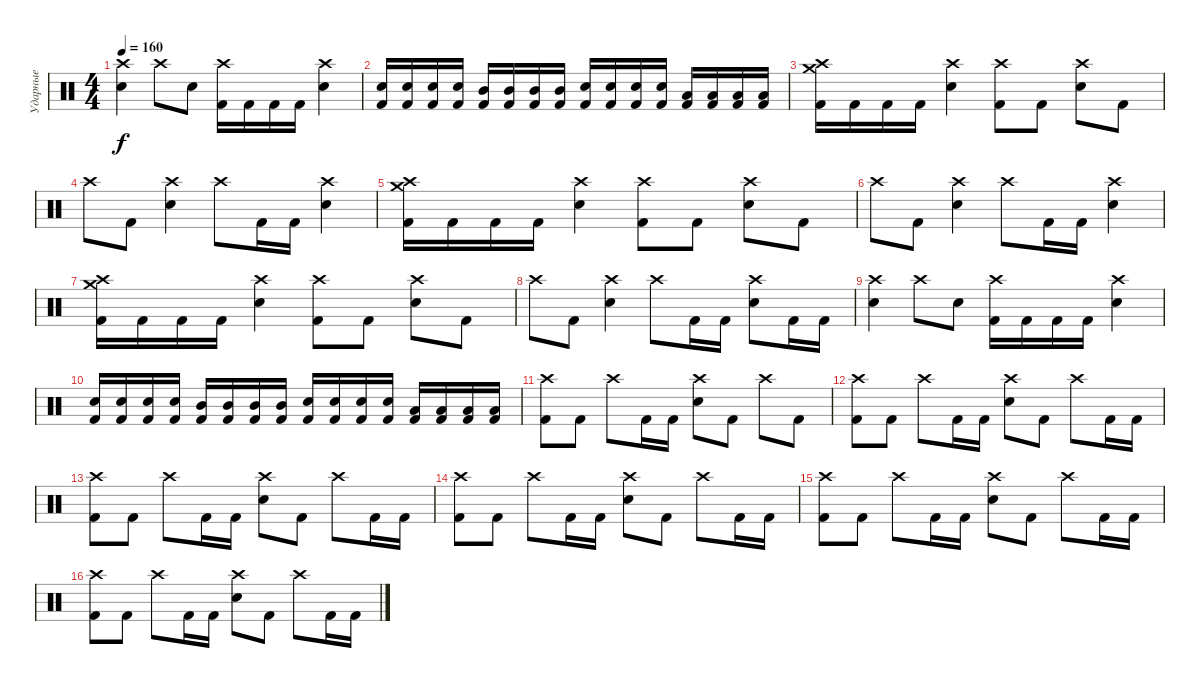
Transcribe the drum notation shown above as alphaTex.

\track ("Ударные" "Ударные") {instrument percussion}
\staff {score}
\articulation defaults
\ts (4 4)
\tempo 160
\clef neutral
\ks c
("Crash high (hit)" "Snare (hit) 2").4{dy f} "Crash high (hit)".8 "Snare (hit) 2".8 ("Crash high (hit)" "Kick (hit) 2").16 "Kick (hit) 2".16 "Kick (hit) 2".16 "Kick (hit) 2".16 ("Crash high (hit)" "Snare (hit) 2").4 |
("Snare (hit) 2" "Kick (hit) 2").16 ("Snare (hit) 2" "Kick (hit) 2").16 ("Snare (hit) 2" "Kick (hit) 2").16 ("Snare (hit) 2" "Kick (hit) 2").16 ("Mid Tom (hit)" "Kick (hit) 2").16 ("Mid Tom (hit)" "Kick (hit) 2").16 ("Mid Tom (hit)" "Kick (hit) 2").16 ("Mid Tom (hit)" "Kick (hit) 2").16 ("Snare (hit) 2" "Kick (hit) 2").16 ("Snare (hit) 2" "Kick (hit) 2").16 ("Snare (hit) 2" "Kick (hit) 2").16 ("Snare (hit) 2" "Kick (hit) 2").16 ("Low Tom (hit)" "Kick (hit) 2").16 ("Low Tom (hit)" "Kick (hit) 2").16 ("Low Tom (hit)" "Kick (hit) 2").16 ("Low Tom (hit)" "Kick (hit) 2").16 |
("Crash high (hit)" "Crash medium (hit)" "Kick (hit) 2").16 "Kick (hit) 2".16 "Kick (hit) 2".16 "Kick (hit) 2".16 ("Crash high (hit)" "Snare (hit) 2").4 ("Crash high (hit)" "Kick (hit) 2").8 "Kick (hit) 2".8 ("Crash high (hit)" "Snare (hit) 2").8 "Kick (hit) 2".8 |
"Crash high (hit)".8 "Kick (hit) 2".8 ("Crash high (hit)" "Snare (hit) 2").4 "Crash high (hit)".8 "Kick (hit) 2".16 "Kick (hit) 2".16 ("Crash high (hit)" "Snare (hit) 2").4 |
("Crash high (hit)" "Crash medium (hit)" "Kick (hit) 2").16 "Kick (hit) 2".16 "Kick (hit) 2".16 "Kick (hit) 2".16 ("Crash high (hit)" "Snare (hit) 2").4 ("Crash high (hit)" "Kick (hit) 2").8 "Kick (hit) 2".8 ("Crash high (hit)" "Snare (hit) 2").8 "Kick (hit) 2".8 |
"Crash high (hit)".8 "Kick (hit) 2".8 ("Crash high (hit)" "Snare (hit) 2").4 "Crash high (hit)".8 "Kick (hit) 2".16 "Kick (hit) 2".16 ("Crash high (hit)" "Snare (hit) 2").4 |
("Crash high (hit)" "Crash medium (hit)" "Kick (hit) 2").16 "Kick (hit) 2".16 "Kick (hit) 2".16 "Kick (hit) 2".16 ("Crash high (hit)" "Snare (hit) 2").4 ("Crash high (hit)" "Kick (hit) 2").8 "Kick (hit) 2".8 ("Crash high (hit)" "Snare (hit) 2").8 "Kick (hit) 2".8 |
"Crash high (hit)".8 "Kick (hit) 2".8 ("Crash high (hit)" "Snare (hit) 2").4 "Crash high (hit)".8 "Kick (hit) 2".16 "Kick (hit) 2".16 ("Crash high (hit)" "Snare (hit) 2").8 "Kick (hit) 2".16 "Kick (hit) 2".16 |
("Crash high (hit)" "Snare (hit) 2").4 "Crash high (hit)".8 "Snare (hit) 2".8 ("Crash high (hit)" "Kick (hit) 2").16 "Kick (hit) 2".16 "Kick (hit) 2".16 "Kick (hit) 2".16 ("Crash high (hit)" "Snare (hit) 2").4 |
("Snare (hit) 2" "Kick (hit) 2").16 ("Snare (hit) 2" "Kick (hit) 2").16 ("Snare (hit) 2" "Kick (hit) 2").16 ("Snare (hit) 2" "Kick (hit) 2").16 ("Mid Tom (hit)" "Kick (hit) 2").16 ("Mid Tom (hit)" "Kick (hit) 2").16 ("Mid Tom (hit)" "Kick (hit) 2").16 ("Mid Tom (hit)" "Kick (hit) 2").16 ("Snare (hit) 2" "Kick (hit) 2").16 ("Snare (hit) 2" "Kick (hit) 2").16 ("Snare (hit) 2" "Kick (hit) 2").16 ("Snare (hit) 2" "Kick (hit) 2").16 ("Low Tom (hit)" "Kick (hit) 2").16 ("Low Tom (hit)" "Kick (hit) 2").16 ("Low Tom (hit)" "Kick (hit) 2").16 ("Low Tom (hit)" "Kick (hit) 2").16 |
("Crash high (hit)" "Kick (hit) 2").8 "Kick (hit) 2".8 "Crash high (hit)".8 "Kick (hit) 2".16 "Kick (hit) 2".16 ("Crash high (hit)" "Snare (hit) 2").8 "Kick (hit) 2".8 "Crash high (hit)".8 "Kick (hit) 2".8 |
("Crash high (hit)" "Kick (hit) 2").8 "Kick (hit) 2".8 "Crash high (hit)".8 "Kick (hit) 2".16 "Kick (hit) 2".16 ("Crash high (hit)" "Snare (hit) 2").8 "Kick (hit) 2".8 "Crash high (hit)".8 "Kick (hit) 2".16 "Kick (hit) 2".16 |
("Crash high (hit)" "Kick (hit) 2").8 "Kick (hit) 2".8 "Crash high (hit)".8 "Kick (hit) 2".16 "Kick (hit) 2".16 ("Crash high (hit)" "Snare (hit) 2").8 "Kick (hit) 2".8 "Crash high (hit)".8 "Kick (hit) 2".16 "Kick (hit) 2".16 |
("Crash high (hit)" "Kick (hit) 2").8 "Kick (hit) 2".8 "Crash high (hit)".8 "Kick (hit) 2".16 "Kick (hit) 2".16 ("Crash high (hit)" "Snare (hit) 2").8 "Kick (hit) 2".8 "Crash high (hit)".8 "Kick (hit) 2".16 "Kick (hit) 2".16 |
("Crash high (hit)" "Kick (hit) 2").8 "Kick (hit) 2".8 "Crash high (hit)".8 "Kick (hit) 2".16 "Kick (hit) 2".16 ("Crash high (hit)" "Snare (hit) 2").8 "Kick (hit) 2".8 "Crash high (hit)".8 "Kick (hit) 2".16 "Kick (hit) 2".16 |
("Crash high (hit)" "Kick (hit) 2").8 "Kick (hit) 2".8 "Crash high (hit)".8 "Kick (hit) 2".16 "Kick (hit) 2".16 ("Crash high (hit)" "Snare (hit) 2").8 "Kick (hit) 2".8 "Crash high (hit)".8 "Kick (hit) 2".16 "Kick (hit) 2".16
